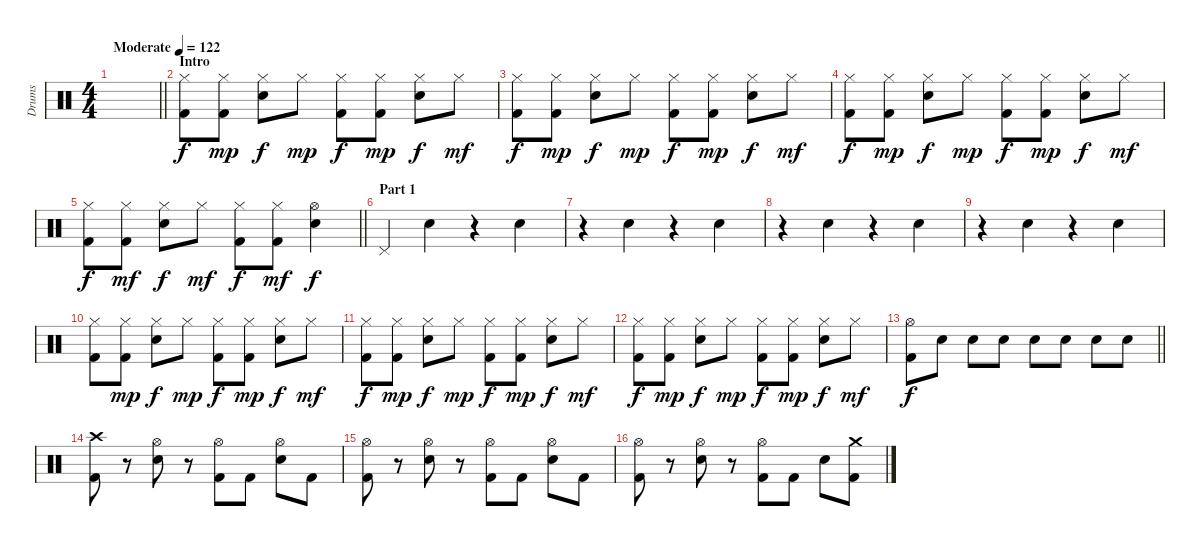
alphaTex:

\track ("Drums" "Drums") {instrument percussion}
\staff {score}
\articulation defaults
\ts (4 4)
\tempo (122 "Moderate")
\clef neutral
\barLineRight lightlight
\ks c
|
\section ("" "Intro")
("Kick (hit) 2" "Hi-Hat (closed)").8 ("Kick (hit) 2" "Hi-Hat (closed)").8{dy mp} ("Snare (hit) 2" "Hi-Hat (closed)").8{dy f} "Hi-Hat (closed)".8{dy mp} ("Kick (hit) 2" "Hi-Hat (closed)").8{dy f} ("Kick (hit) 2" "Hi-Hat (closed)").8{dy mp} ("Snare (hit) 2" "Hi-Hat (closed)").8{dy f} "Hi-Hat (closed)".8{dy mf} |
("Kick (hit) 2" "Hi-Hat (closed)").8{dy f} ("Kick (hit) 2" "Hi-Hat (closed)").8{dy mp} ("Snare (hit) 2" "Hi-Hat (closed)").8{dy f} "Hi-Hat (closed)".8{dy mp} ("Kick (hit) 2" "Hi-Hat (closed)").8{dy f} ("Kick (hit) 2" "Hi-Hat (closed)").8{dy mp} ("Snare (hit) 2" "Hi-Hat (closed)").8{dy f} "Hi-Hat (closed)".8{dy mf} |
("Kick (hit) 2" "Hi-Hat (closed)").8{dy f} ("Kick (hit) 2" "Hi-Hat (closed)").8{dy mp} ("Snare (hit) 2" "Hi-Hat (closed)").8{dy f} "Hi-Hat (closed)".8{dy mp} ("Kick (hit) 2" "Hi-Hat (closed)").8{dy f} ("Kick (hit) 2" "Hi-Hat (closed)").8{dy mp} ("Snare (hit) 2" "Hi-Hat (closed)").8{dy f} "Hi-Hat (closed)".8{dy mf} |
\barLineRight lightlight
("Kick (hit) 2" "Hi-Hat (closed)").8{dy f} ("Kick (hit) 2" "Hi-Hat (closed)").8{dy mf} ("Snare (hit) 2" "Hi-Hat (closed)").8{dy f} "Hi-Hat (closed)".8{dy mf} ("Kick (hit) 2" "Hi-Hat (closed)").8{dy f} ("Kick (hit) 2" "Hi-Hat (closed)").8{dy mf} ("Snare (hit) 2" "Hi-Hat (open)").4{dy f} |
\section ("" "Part 1")
"Pedal Hi-Hat (hit)".4 "Snare (hit) 2".4 r.4 "Snare (hit) 2".4 |
r.4 "Snare (hit) 2".4 r.4 "Snare (hit) 2".4 |
r.4 "Snare (hit) 2".4 r.4 "Snare (hit) 2".4 |
r.4 "Snare (hit) 2".4 r.4 "Snare (hit) 2".4 |
("Kick (hit) 2" "Hi-Hat (closed)").8 ("Kick (hit) 2" "Hi-Hat (closed)").8{dy mp} ("Snare (hit) 2" "Hi-Hat (closed)").8{dy f} "Hi-Hat (closed)".8{dy mp} ("Kick (hit) 2" "Hi-Hat (closed)").8{dy f} ("Kick (hit) 2" "Hi-Hat (closed)").8{dy mp} ("Snare (hit) 2" "Hi-Hat (closed)").8{dy f} "Hi-Hat (closed)".8{dy mf} |
("Kick (hit) 2" "Hi-Hat (closed)").8{dy f} ("Kick (hit) 2" "Hi-Hat (closed)").8{dy mp} ("Snare (hit) 2" "Hi-Hat (closed)").8{dy f} "Hi-Hat (closed)".8{dy mp} ("Kick (hit) 2" "Hi-Hat (closed)").8{dy f} ("Kick (hit) 2" "Hi-Hat (closed)").8{dy mp} ("Snare (hit) 2" "Hi-Hat (closed)").8{dy f} "Hi-Hat (closed)".8{dy mf} |
("Kick (hit) 2" "Hi-Hat (closed)").8{dy f} ("Kick (hit) 2" "Hi-Hat (closed)").8{dy mp} ("Snare (hit) 2" "Hi-Hat (closed)").8{dy f} "Hi-Hat (closed)".8{dy mp} ("Kick (hit) 2" "Hi-Hat (closed)").8{dy f} ("Kick (hit) 2" "Hi-Hat (closed)").8{dy mp} ("Snare (hit) 2" "Hi-Hat (closed)").8{dy f} "Hi-Hat (closed)".8{dy mf} |
\barLineRight lightlight
("Kick (hit) 2" "Hi-Hat (open)").8{dy f} "Snare (hit) 2".8 "Snare (hit) 2".8 "Snare (hit) 2".8 "Snare (hit) 2".8 "Snare (hit) 2".8 "Snare (hit) 2".8 "Snare (hit) 2".8 |
\section ("" " ")
("Kick (hit) 2" "Crash high (hit)").8 r.8 ("Snare (hit) 2" "Hi-Hat (open)").8 r.8 ("Kick (hit) 2" "Hi-Hat (open)").8 "Kick (hit) 2".8 ("Snare (hit) 2" "Hi-Hat (open)").8 "Kick (hit) 2".8 |
("Kick (hit) 2" "Hi-Hat (open)").8 r.8 ("Snare (hit) 2" "Hi-Hat (open)").8 r.8 ("Kick (hit) 2" "Hi-Hat (open)").8 "Kick (hit) 2".8 ("Snare (hit) 2" "Hi-Hat (open)").8 "Kick (hit) 2".8 |
("Kick (hit) 2" "Hi-Hat (open)").8 r.8 ("Snare (hit) 2" "Hi-Hat (open)").8 r.8 ("Kick (hit) 2" "Hi-Hat (open)").8 "Kick (hit) 2".8 "Snare (hit) 2".8 ("Kick (hit) 2" "Crash medium (hit)").8
